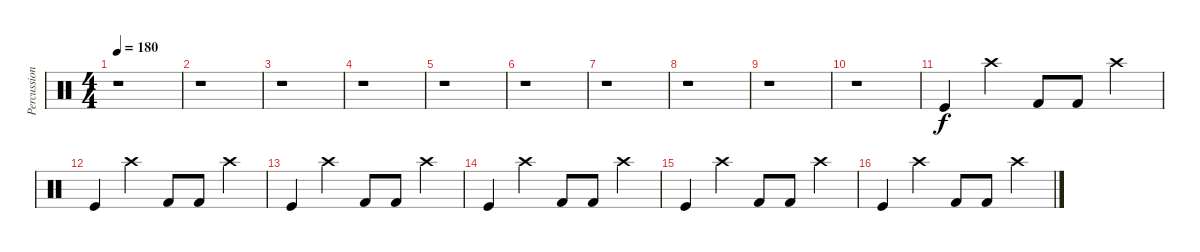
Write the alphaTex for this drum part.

\track ("Percussion" "Percussion") {instrument percussion}
\staff {score}
\articulation defaults
\ts (4 4)
\tempo 180
\clef neutral
\ks c
r.1{dy f} |
r.1 |
r.1 |
r.1 |
r.1 |
r.1 |
r.1 |
r.1 |
r.1 |
r.1 |
"Kick (hit)".4 "Crash high (hit)".4 "Kick (hit) 2".8 "Kick (hit) 2".8 "Crash high (hit)".4 |
"Kick (hit)".4 "Crash high (hit)".4 "Kick (hit) 2".8 "Kick (hit) 2".8 "Crash high (hit)".4 |
"Kick (hit)".4 "Crash high (hit)".4 "Kick (hit) 2".8 "Kick (hit) 2".8 "Crash high (hit)".4 |
"Kick (hit)".4 "Crash high (hit)".4 "Kick (hit) 2".8 "Kick (hit) 2".8 "Crash high (hit)".4 |
"Kick (hit)".4 "Crash high (hit)".4 "Kick (hit) 2".8 "Kick (hit) 2".8 "Crash high (hit)".4 |
"Kick (hit)".4 "Crash high (hit)".4 "Kick (hit) 2".8 "Kick (hit) 2".8 "Crash high (hit)".4
